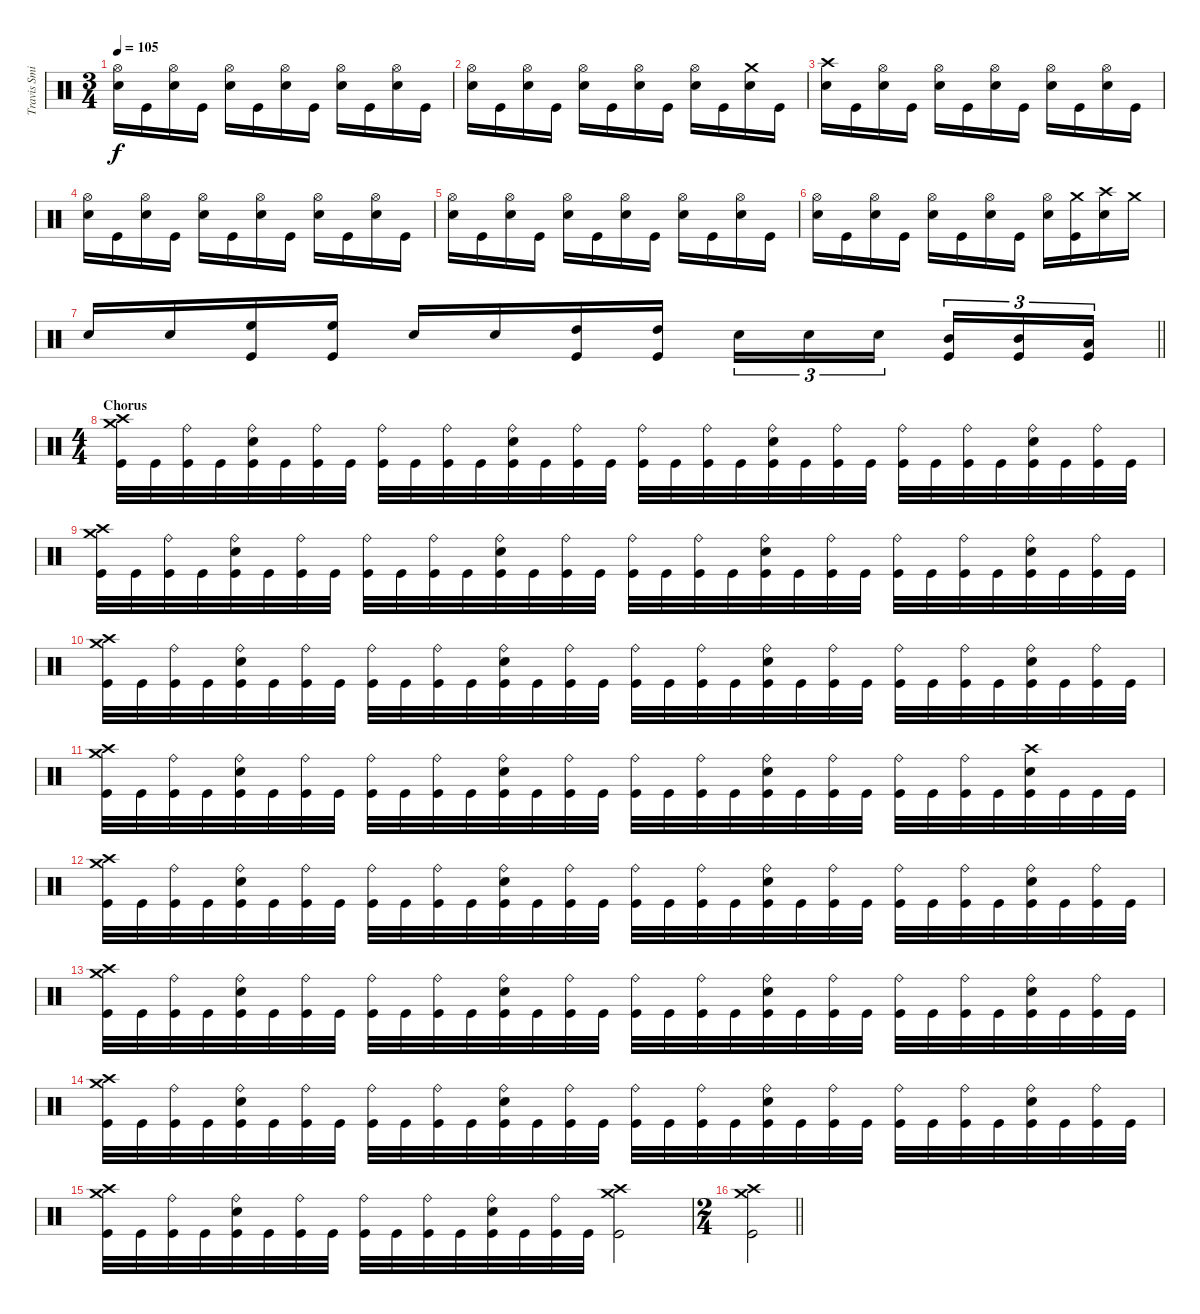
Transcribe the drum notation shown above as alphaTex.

\track ("Travis Smith" "Travis Smi") {instrument percussion}
\staff {score}
\articulation defaults
\ts (3 4)
\tempo 105
\clef neutral
\ks c
("Hi-Hat (open)" "Electric Snare (hit)").16{dy f} "Kick (hit)".16 ("Hi-Hat (open)" "Electric Snare (hit)").16 "Kick (hit)".16 ("Hi-Hat (open)" "Electric Snare (hit)").16 "Kick (hit)".16 ("Hi-Hat (open)" "Electric Snare (hit)").16 "Kick (hit)".16 ("Hi-Hat (open)" "Electric Snare (hit)").16 "Kick (hit)".16 ("Hi-Hat (open)" "Electric Snare (hit)").16 "Kick (hit)".16 |
("Hi-Hat (open)" "Electric Snare (hit)").16 "Kick (hit)".16 ("Hi-Hat (open)" "Electric Snare (hit)").16 "Kick (hit)".16 ("Hi-Hat (open)" "Electric Snare (hit)").16 "Kick (hit)".16 ("Hi-Hat (open)" "Electric Snare (hit)").16 "Kick (hit)".16 ("Hi-Hat (open)" "Electric Snare (hit)").16 "Kick (hit)".16 ("Crash medium (hit)" "Electric Snare (hit)").16 "Kick (hit)".16 |
("Crash high (hit)" "Electric Snare (hit)").16 "Kick (hit)".16 ("Hi-Hat (open)" "Electric Snare (hit)").16 "Kick (hit)".16 ("Hi-Hat (open)" "Electric Snare (hit)").16 "Kick (hit)".16 ("Hi-Hat (open)" "Electric Snare (hit)").16 "Kick (hit)".16 ("Hi-Hat (open)" "Electric Snare (hit)").16 "Kick (hit)".16 ("Hi-Hat (open)" "Electric Snare (hit)").16 "Kick (hit)".16 |
("Hi-Hat (open)" "Electric Snare (hit)").16 "Kick (hit)".16 ("Hi-Hat (open)" "Electric Snare (hit)").16 "Kick (hit)".16 ("Hi-Hat (open)" "Electric Snare (hit)").16 "Kick (hit)".16 ("Hi-Hat (open)" "Electric Snare (hit)").16 "Kick (hit)".16 ("Hi-Hat (open)" "Electric Snare (hit)").16 "Kick (hit)".16 ("Hi-Hat (open)" "Electric Snare (hit)").16 "Kick (hit)".16 |
("Hi-Hat (open)" "Electric Snare (hit)").16 "Kick (hit)".16 ("Hi-Hat (open)" "Electric Snare (hit)").16 "Kick (hit)".16 ("Hi-Hat (open)" "Electric Snare (hit)").16 "Kick (hit)".16 ("Hi-Hat (open)" "Electric Snare (hit)").16 "Kick (hit)".16 ("Hi-Hat (open)" "Electric Snare (hit)").16 "Kick (hit)".16 ("Hi-Hat (open)" "Electric Snare (hit)").16 "Kick (hit)".16 |
("Hi-Hat (open)" "Electric Snare (hit)").16 "Kick (hit)".16 ("Hi-Hat (open)" "Electric Snare (hit)").16 "Kick (hit)".16 ("Hi-Hat (open)" "Electric Snare (hit)").16 "Kick (hit)".16 ("Hi-Hat (open)" "Electric Snare (hit)").16 "Kick (hit)".16 ("Hi-Hat (open)" "Electric Snare (hit)").16 ("Crash medium (hit)" "Kick (hit)").16 ("Crash high (hit)" "Electric Snare (hit)").16 "Crash medium (hit)".16 |
\barLineRight lightlight "Electric Snare (hit)".16 "Electric Snare (hit)".16
("High Floor Tom (hit)" "Kick (hit)").16 ("High Floor Tom (hit)" "Kick (hit)").16 "Electric Snare (hit)".16 "Electric Snare (hit)".16 ("High Tom (hit)" "Kick (hit)").16 ("High Tom (hit)" "Kick (hit)").16 "Electric Snare (hit)".16{tu (3 2)} "Electric Snare (hit)".16{tu (3 2)} "Electric Snare (hit)".16{tu (3 2) beam splitsecondary} ("Mid Tom (hit)" "Kick (hit)").16{tu (3 2)} ("Mid Tom (hit)" "Kick (hit)").16{tu (3 2)} ("Low Tom (hit)" "Kick (hit)").16{tu (3 2)} |
\ts (4 4)
\section ("" "Chorus")
("Crash high (hit)" "Crash medium (hit)" "Kick (hit)").32 "Kick (hit)".32 ("Ride (bell)" "Kick (hit)").32 "Kick (hit)".32 ("Ride (bell)" "Electric Snare (hit)" "Kick (hit)").32 "Kick (hit)".32 ("Ride (bell)" "Kick (hit)").32 "Kick (hit)".32 ("Ride (bell)" "Kick (hit)").32 "Kick (hit)".32 ("Ride (bell)" "Kick (hit)").32 "Kick (hit)".32 ("Ride (bell)" "Electric Snare (hit)" "Kick (hit)").32 "Kick (hit)".32 ("Ride (bell)" "Kick (hit)").32 "Kick (hit)".32 ("Ride (bell)" "Kick (hit)").32 "Kick (hit)".32 ("Ride (bell)" "Kick (hit)").32 "Kick (hit)".32 ("Ride (bell)" "Electric Snare (hit)" "Kick (hit)").32 "Kick (hit)".32 ("Ride (bell)" "Kick (hit)").32 "Kick (hit)".32 ("Ride (bell)" "Kick (hit)").32 "Kick (hit)".32 ("Ride (bell)" "Kick (hit)").32 "Kick (hit)".32 ("Ride (bell)" "Electric Snare (hit)" "Kick (hit)").32 "Kick (hit)".32 ("Ride (bell)" "Kick (hit)").32 "Kick (hit)".32 |
("Crash high (hit)" "Crash medium (hit)" "Kick (hit)").32 "Kick (hit)".32 ("Ride (bell)" "Kick (hit)").32 "Kick (hit)".32 ("Ride (bell)" "Electric Snare (hit)" "Kick (hit)").32 "Kick (hit)".32 ("Ride (bell)" "Kick (hit)").32 "Kick (hit)".32 ("Ride (bell)" "Kick (hit)").32 "Kick (hit)".32 ("Ride (bell)" "Kick (hit)").32 "Kick (hit)".32 ("Ride (bell)" "Electric Snare (hit)" "Kick (hit)").32 "Kick (hit)".32 ("Ride (bell)" "Kick (hit)").32 "Kick (hit)".32 ("Ride (bell)" "Kick (hit)").32 "Kick (hit)".32 ("Ride (bell)" "Kick (hit)").32 "Kick (hit)".32 ("Ride (bell)" "Electric Snare (hit)" "Kick (hit)").32 "Kick (hit)".32 ("Ride (bell)" "Kick (hit)").32 "Kick (hit)".32 ("Ride (bell)" "Kick (hit)").32 "Kick (hit)".32 ("Ride (bell)" "Kick (hit)").32 "Kick (hit)".32 ("Ride (bell)" "Electric Snare (hit)" "Kick (hit)").32 "Kick (hit)".32 ("Ride (bell)" "Kick (hit)").32 "Kick (hit)".32 |
("Crash high (hit)" "Crash medium (hit)" "Kick (hit)").32 "Kick (hit)".32 ("Ride (bell)" "Kick (hit)").32 "Kick (hit)".32 ("Ride (bell)" "Electric Snare (hit)" "Kick (hit)").32 "Kick (hit)".32 ("Ride (bell)" "Kick (hit)").32 "Kick (hit)".32 ("Ride (bell)" "Kick (hit)").32 "Kick (hit)".32 ("Ride (bell)" "Kick (hit)").32 "Kick (hit)".32 ("Ride (bell)" "Electric Snare (hit)" "Kick (hit)").32 "Kick (hit)".32 ("Ride (bell)" "Kick (hit)").32 "Kick (hit)".32 ("Ride (bell)" "Kick (hit)").32 "Kick (hit)".32 ("Ride (bell)" "Kick (hit)").32 "Kick (hit)".32 ("Ride (bell)" "Electric Snare (hit)" "Kick (hit)").32 "Kick (hit)".32 ("Ride (bell)" "Kick (hit)").32 "Kick (hit)".32 ("Ride (bell)" "Kick (hit)").32 "Kick (hit)".32 ("Ride (bell)" "Kick (hit)").32 "Kick (hit)".32 ("Ride (bell)" "Electric Snare (hit)" "Kick (hit)").32 "Kick (hit)".32 ("Ride (bell)" "Kick (hit)").32 "Kick (hit)".32 |
("Crash high (hit)" "Crash medium (hit)" "Kick (hit)").32 "Kick (hit)".32 ("Ride (bell)" "Kick (hit)").32 "Kick (hit)".32 ("Ride (bell)" "Electric Snare (hit)" "Kick (hit)").32 "Kick (hit)".32 ("Ride (bell)" "Kick (hit)").32 "Kick (hit)".32 ("Ride (bell)" "Kick (hit)").32 "Kick (hit)".32 ("Ride (bell)" "Kick (hit)").32 "Kick (hit)".32 ("Ride (bell)" "Electric Snare (hit)" "Kick (hit)").32 "Kick (hit)".32 ("Ride (bell)" "Kick (hit)").32 "Kick (hit)".32 ("Ride (bell)" "Kick (hit)").32 "Kick (hit)".32 ("Ride (bell)" "Kick (hit)").32 "Kick (hit)".32 ("Ride (bell)" "Electric Snare (hit)" "Kick (hit)").32 "Kick (hit)".32 ("Ride (bell)" "Kick (hit)").32 "Kick (hit)".32 ("Ride (bell)" "Kick (hit)").32 "Kick (hit)".32 ("Ride (bell)" "Kick (hit)").32 "Kick (hit)".32 ("Crash high (hit)" "Electric Snare (hit)" "Kick (hit)").32 "Kick (hit)".32 "Kick (hit)".32 "Kick (hit)".32 |
("Crash high (hit)" "Crash medium (hit)" "Kick (hit)").32 "Kick (hit)".32 ("Ride (bell)" "Kick (hit)").32 "Kick (hit)".32 ("Ride (bell)" "Electric Snare (hit)" "Kick (hit)").32 "Kick (hit)".32 ("Ride (bell)" "Kick (hit)").32 "Kick (hit)".32 ("Ride (bell)" "Kick (hit)").32 "Kick (hit)".32 ("Ride (bell)" "Kick (hit)").32 "Kick (hit)".32 ("Ride (bell)" "Electric Snare (hit)" "Kick (hit)").32 "Kick (hit)".32 ("Ride (bell)" "Kick (hit)").32 "Kick (hit)".32 ("Ride (bell)" "Kick (hit)").32 "Kick (hit)".32 ("Ride (bell)" "Kick (hit)").32 "Kick (hit)".32 ("Ride (bell)" "Electric Snare (hit)" "Kick (hit)").32 "Kick (hit)".32 ("Ride (bell)" "Kick (hit)").32 "Kick (hit)".32 ("Ride (bell)" "Kick (hit)").32 "Kick (hit)".32 ("Ride (bell)" "Kick (hit)").32 "Kick (hit)".32 ("Ride (bell)" "Electric Snare (hit)" "Kick (hit)").32 "Kick (hit)".32 ("Ride (bell)" "Kick (hit)").32 "Kick (hit)".32 |
("Crash high (hit)" "Crash medium (hit)" "Kick (hit)").32 "Kick (hit)".32 ("Ride (bell)" "Kick (hit)").32 "Kick (hit)".32 ("Ride (bell)" "Electric Snare (hit)" "Kick (hit)").32 "Kick (hit)".32 ("Ride (bell)" "Kick (hit)").32 "Kick (hit)".32 ("Ride (bell)" "Kick (hit)").32 "Kick (hit)".32 ("Ride (bell)" "Kick (hit)").32 "Kick (hit)".32 ("Ride (bell)" "Electric Snare (hit)" "Kick (hit)").32 "Kick (hit)".32 ("Ride (bell)" "Kick (hit)").32 "Kick (hit)".32 ("Ride (bell)" "Kick (hit)").32 "Kick (hit)".32 ("Ride (bell)" "Kick (hit)").32 "Kick (hit)".32 ("Ride (bell)" "Electric Snare (hit)" "Kick (hit)").32 "Kick (hit)".32 ("Ride (bell)" "Kick (hit)").32 "Kick (hit)".32 ("Ride (bell)" "Kick (hit)").32 "Kick (hit)".32 ("Ride (bell)" "Kick (hit)").32 "Kick (hit)".32 ("Ride (bell)" "Electric Snare (hit)" "Kick (hit)").32 "Kick (hit)".32 ("Ride (bell)" "Kick (hit)").32 "Kick (hit)".32 |
("Crash high (hit)" "Crash medium (hit)" "Kick (hit)").32 "Kick (hit)".32 ("Ride (bell)" "Kick (hit)").32 "Kick (hit)".32 ("Ride (bell)" "Electric Snare (hit)" "Kick (hit)").32 "Kick (hit)".32 ("Ride (bell)" "Kick (hit)").32 "Kick (hit)".32 ("Ride (bell)" "Kick (hit)").32 "Kick (hit)".32 ("Ride (bell)" "Kick (hit)").32 "Kick (hit)".32 ("Ride (bell)" "Electric Snare (hit)" "Kick (hit)").32 "Kick (hit)".32 ("Ride (bell)" "Kick (hit)").32 "Kick (hit)".32 ("Ride (bell)" "Kick (hit)").32 "Kick (hit)".32 ("Ride (bell)" "Kick (hit)").32 "Kick (hit)".32 ("Ride (bell)" "Electric Snare (hit)" "Kick (hit)").32 "Kick (hit)".32 ("Ride (bell)" "Kick (hit)").32 "Kick (hit)".32 ("Ride (bell)" "Kick (hit)").32 "Kick (hit)".32 ("Ride (bell)" "Kick (hit)").32 "Kick (hit)".32 ("Ride (bell)" "Electric Snare (hit)" "Kick (hit)").32 "Kick (hit)".32 ("Ride (bell)" "Kick (hit)").32 "Kick (hit)".32 |
("Crash high (hit)" "Crash medium (hit)" "Kick (hit)").32 "Kick (hit)".32 ("Ride (bell)" "Kick (hit)").32 "Kick (hit)".32 ("Ride (bell)" "Electric Snare (hit)" "Kick (hit)").32 "Kick (hit)".32 ("Ride (bell)" "Kick (hit)").32 "Kick (hit)".32 ("Ride (bell)" "Kick (hit)").32 "Kick (hit)".32 ("Ride (bell)" "Kick (hit)").32 "Kick (hit)".32 ("Ride (bell)" "Electric Snare (hit)" "Kick (hit)").32 "Kick (hit)".32 ("Ride (bell)" "Kick (hit)").32 "Kick (hit)".32 ("Crash high (hit)" "Crash medium (hit)" "Kick (hit)").2 |
\ts (2 4)
\barLineRight lightlight
("Crash high (hit)" "Crash medium (hit)" "Kick (hit)").2
